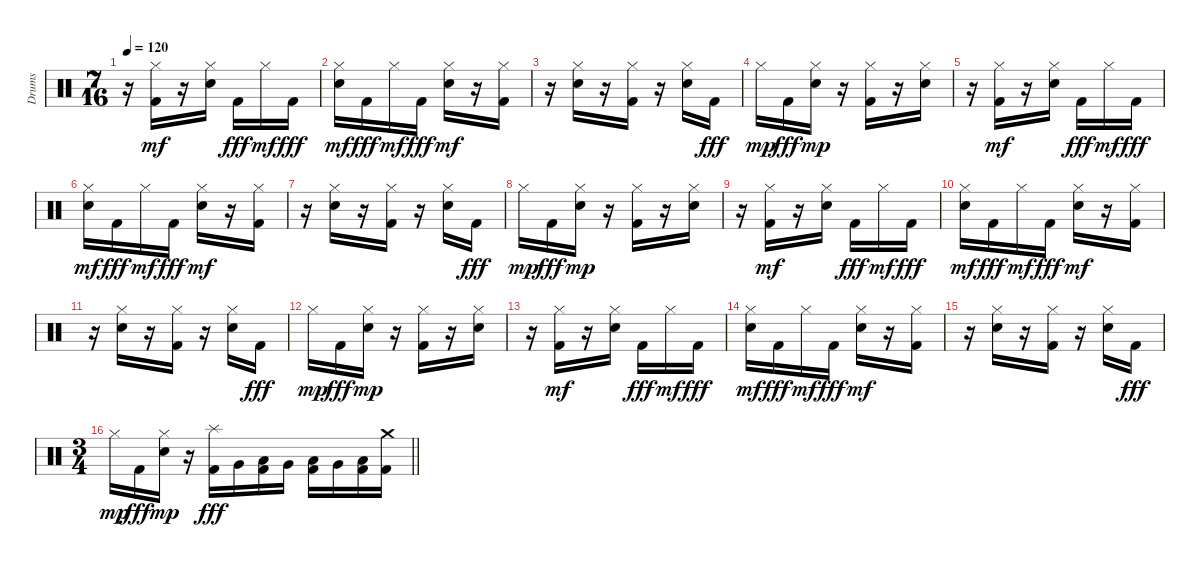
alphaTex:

\track ("Drums" "Drums") {instrument percussion}
\staff {score}
\articulation defaults
\ts (7 16)
\tempo 120
\clef neutral
\ks c
r.16{dy mp} ("Kick (hit) 2" "Hi-Hat (closed)").16{dy mf} r.16 ("Electric Snare (hit)" "Hi-Hat (closed)").16 "Kick (hit) 2".16{dy fff} "Hi-Hat (closed)".16{dy mf} "Kick (hit) 2".16{dy fff} |
("Electric Snare (hit)" "Hi-Hat (closed)").16{dy mf} "Kick (hit) 2".16{dy fff} "Hi-Hat (closed)".16{dy mf} "Kick (hit) 2".16{dy fff} ("Electric Snare (hit)" "Hi-Hat (closed)").16{dy mf} r.16 ("Kick (hit) 2" "Hi-Hat (closed)").16 |
r.16 ("Electric Snare (hit)" "Hi-Hat (closed)").16 r.16 ("Kick (hit) 2" "Hi-Hat (closed)").16 r.16 ("Electric Snare (hit)" "Hi-Hat (closed)").16 "Kick (hit) 2".16{dy fff} |
"Hi-Hat (closed)".16{dy mp} "Kick (hit) 2".16{dy fff} ("Electric Snare (hit)" "Hi-Hat (closed)").16{dy mp} r.16 ("Kick (hit) 2" "Hi-Hat (closed)").16 r.16 ("Electric Snare (hit)" "Hi-Hat (closed)").16 |
r.16 ("Kick (hit) 2" "Hi-Hat (closed)").16{dy mf} r.16 ("Electric Snare (hit)" "Hi-Hat (closed)").16 "Kick (hit) 2".16{dy fff} "Hi-Hat (closed)".16{dy mf} "Kick (hit) 2".16{dy fff} |
("Electric Snare (hit)" "Hi-Hat (closed)").16{dy mf} "Kick (hit) 2".16{dy fff} "Hi-Hat (closed)".16{dy mf} "Kick (hit) 2".16{dy fff} ("Electric Snare (hit)" "Hi-Hat (closed)").16{dy mf} r.16 ("Kick (hit) 2" "Hi-Hat (closed)").16 |
r.16 ("Electric Snare (hit)" "Hi-Hat (closed)").16 r.16 ("Kick (hit) 2" "Hi-Hat (closed)").16 r.16 ("Electric Snare (hit)" "Hi-Hat (closed)").16 "Kick (hit) 2".16{dy fff} |
"Hi-Hat (closed)".16{dy mp} "Kick (hit) 2".16{dy fff} ("Electric Snare (hit)" "Hi-Hat (closed)").16{dy mp} r.16 ("Kick (hit) 2" "Hi-Hat (closed)").16 r.16 ("Electric Snare (hit)" "Hi-Hat (closed)").16 |
r.16 ("Kick (hit) 2" "Hi-Hat (closed)").16{dy mf} r.16 ("Electric Snare (hit)" "Hi-Hat (closed)").16 "Kick (hit) 2".16{dy fff} "Hi-Hat (closed)".16{dy mf} "Kick (hit) 2".16{dy fff} |
("Electric Snare (hit)" "Hi-Hat (closed)").16{dy mf} "Kick (hit) 2".16{dy fff} "Hi-Hat (closed)".16{dy mf} "Kick (hit) 2".16{dy fff} ("Electric Snare (hit)" "Hi-Hat (closed)").16{dy mf} r.16 ("Kick (hit) 2" "Hi-Hat (closed)").16 |
r.16 ("Electric Snare (hit)" "Hi-Hat (closed)").16 r.16 ("Kick (hit) 2" "Hi-Hat (closed)").16 r.16 ("Electric Snare (hit)" "Hi-Hat (closed)").16 "Kick (hit) 2".16{dy fff} |
"Hi-Hat (closed)".16{dy mp} "Kick (hit) 2".16{dy fff} ("Electric Snare (hit)" "Hi-Hat (closed)").16{dy mp} r.16 ("Kick (hit) 2" "Hi-Hat (closed)").16 r.16 ("Electric Snare (hit)" "Hi-Hat (closed)").16 |
r.16 ("Kick (hit) 2" "Hi-Hat (closed)").16{dy mf} r.16 ("Electric Snare (hit)" "Hi-Hat (closed)").16 "Kick (hit) 2".16{dy fff} "Hi-Hat (closed)".16{dy mf} "Kick (hit) 2".16{dy fff} |
("Electric Snare (hit)" "Hi-Hat (closed)").16{dy mf} "Kick (hit) 2".16{dy fff} "Hi-Hat (closed)".16{dy mf} "Kick (hit) 2".16{dy fff} ("Electric Snare (hit)" "Hi-Hat (closed)").16{dy mf} r.16 ("Kick (hit) 2" "Hi-Hat (closed)").16 |
r.16 ("Electric Snare (hit)" "Hi-Hat (closed)").16 r.16 ("Kick (hit) 2" "Hi-Hat (closed)").16 r.16 ("Electric Snare (hit)" "Hi-Hat (closed)").16 "Kick (hit) 2".16{dy fff} |
\ts (3 4)
\barLineRight lightlight "Hi-Hat (closed)".16{dy mp} "Kick (hit) 2".16{dy fff}
("Electric Snare (hit)" "Hi-Hat (closed)").16{dy mp} r.16 ("Kick (hit) 2" "Splash (hit)").16{dy fff} "Very Low Tom (hit)".16 ("Kick (hit) 2" "Low Tom (hit)").16 "Very Low Tom (hit)".16 ("Kick (hit) 2" "Low Tom (hit)").16 "Very Low Tom (hit)".16 ("Kick (hit) 2" "Low Tom (hit)").16 ("Kick (hit) 2" "Crash medium (hit)").16
